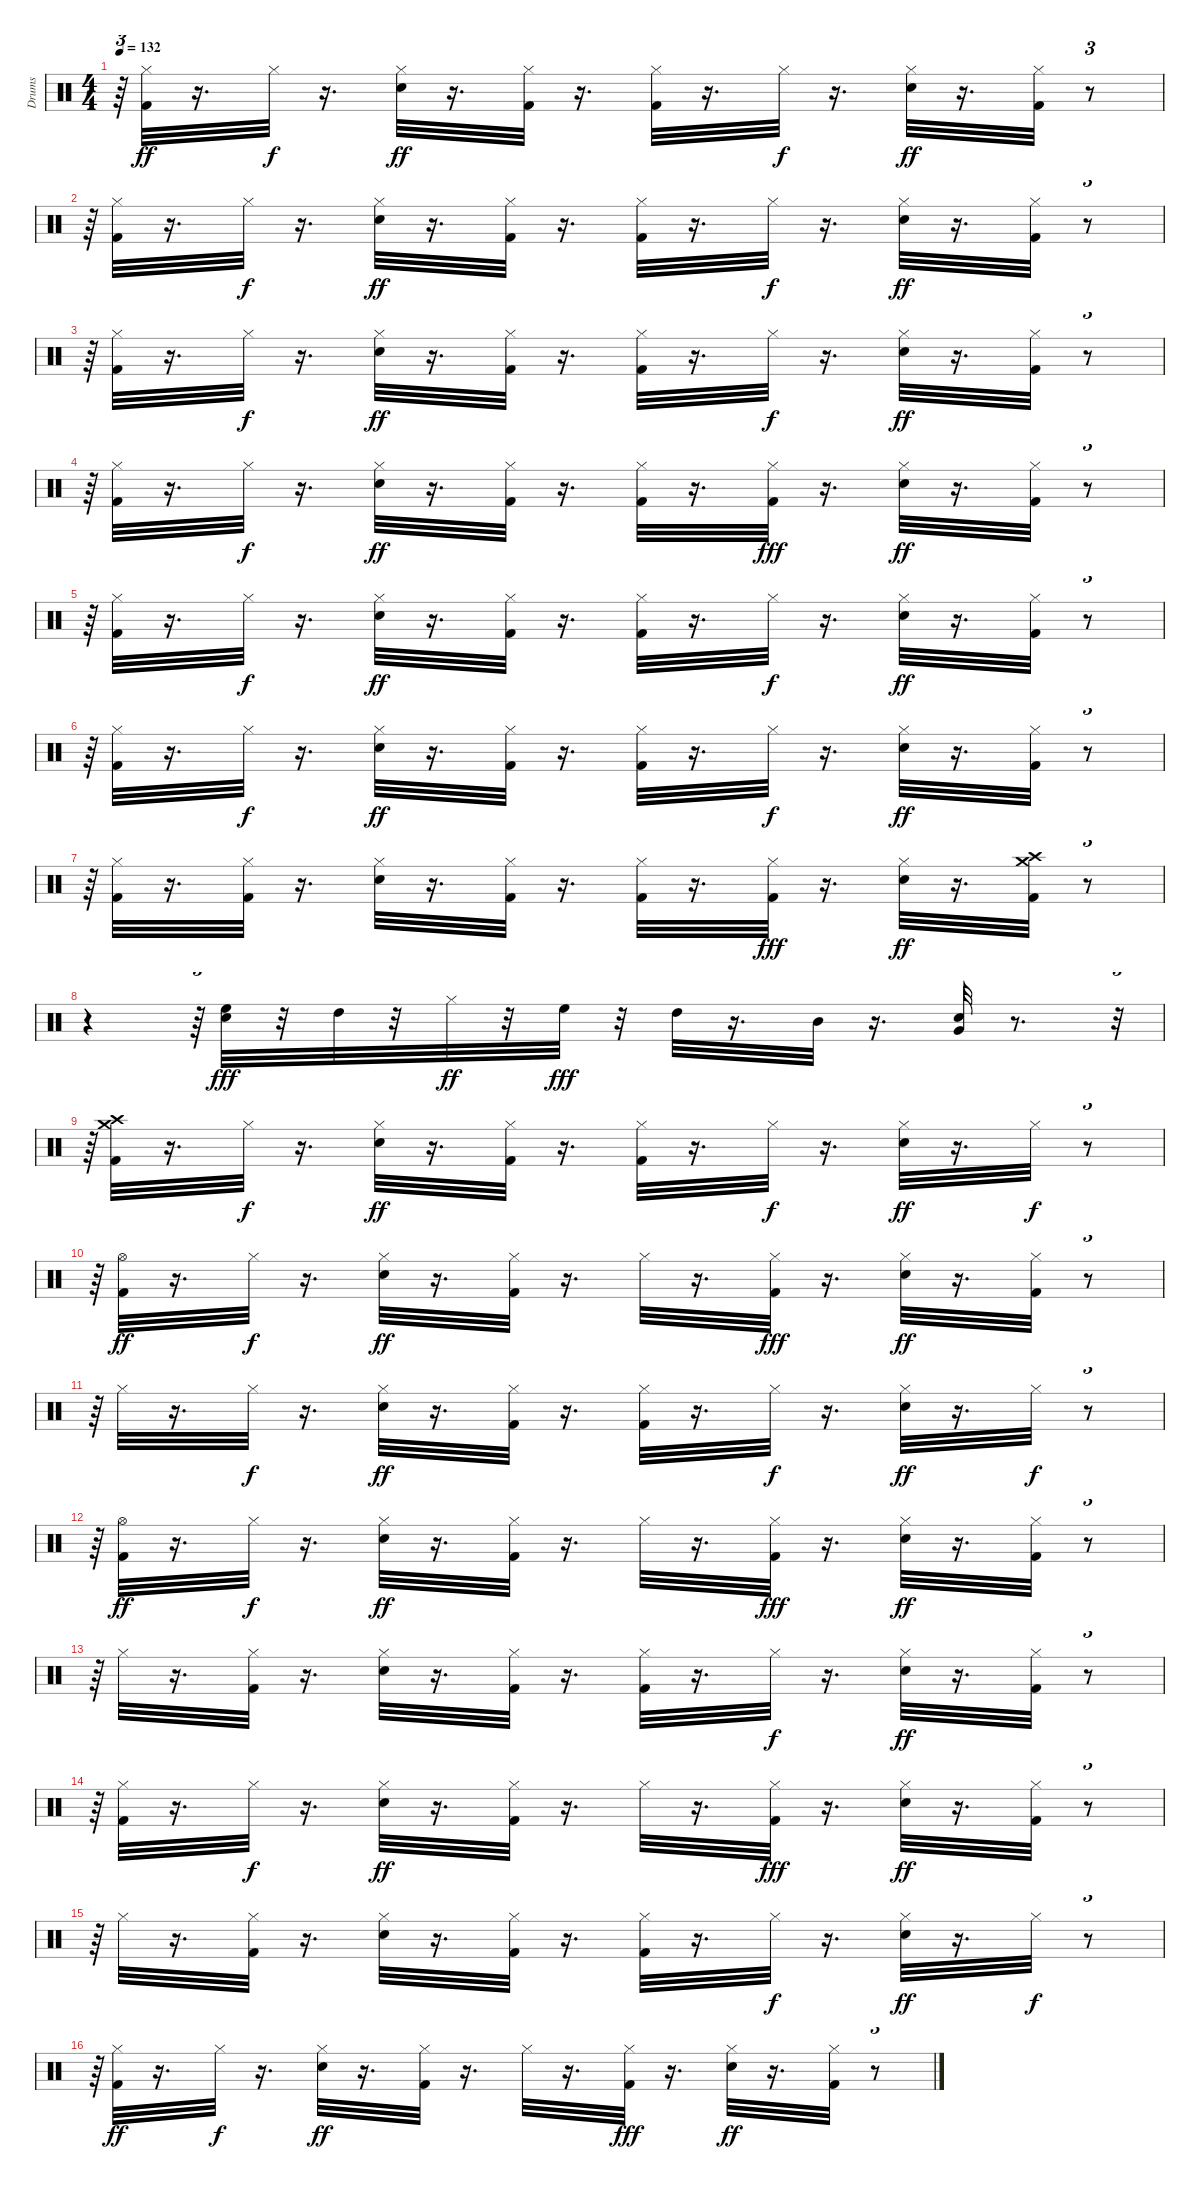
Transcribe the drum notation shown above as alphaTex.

\track ("Drums" "Drums") {instrument percussion}
\staff {score}
\articulation defaults
\ts (4 4)
\tempo 132
\clef neutral
\ks c
r.64{tu (3 2) dy ff} ("Kick (hit) 2" "Hi-Hat (closed)").32 r.16{d} "Hi-Hat (closed)".32{dy f} r.16{d} ("Snare (hit) 2" "Hi-Hat (closed)").32{dy ff} r.16{d} ("Kick (hit) 2" "Hi-Hat (closed)").32 r.16{d} ("Kick (hit) 2" "Hi-Hat (closed)").32 r.16{d} "Hi-Hat (closed)".32{dy f} r.16{d} ("Snare (hit) 2" "Hi-Hat (closed)").32{dy ff} r.16{d} ("Kick (hit) 2" "Hi-Hat (closed)").32 r.8{tu (3 2)} |
r.64{tu (3 2)} ("Kick (hit) 2" "Hi-Hat (closed)").32 r.16{d} "Hi-Hat (closed)".32{dy f} r.16{d} ("Snare (hit) 2" "Hi-Hat (closed)").32{dy ff} r.16{d} ("Kick (hit) 2" "Hi-Hat (closed)").32 r.16{d} ("Kick (hit) 2" "Hi-Hat (closed)").32 r.16{d} "Hi-Hat (closed)".32{dy f} r.16{d} ("Snare (hit) 2" "Hi-Hat (closed)").32{dy ff} r.16{d} ("Kick (hit) 2" "Hi-Hat (closed)").32 r.8{tu (3 2)} |
r.64{tu (3 2)} ("Kick (hit) 2" "Hi-Hat (closed)").32 r.16{d} "Hi-Hat (closed)".32{dy f} r.16{d} ("Snare (hit) 2" "Hi-Hat (closed)").32{dy ff} r.16{d} ("Kick (hit) 2" "Hi-Hat (closed)").32 r.16{d} ("Kick (hit) 2" "Hi-Hat (closed)").32 r.16{d} "Hi-Hat (closed)".32{dy f} r.16{d} ("Snare (hit) 2" "Hi-Hat (closed)").32{dy ff} r.16{d} ("Kick (hit) 2" "Hi-Hat (closed)").32 r.8{tu (3 2)} |
r.64{tu (3 2)} ("Kick (hit) 2" "Hi-Hat (closed)").32 r.16{d} "Hi-Hat (closed)".32{dy f} r.16{d} ("Snare (hit) 2" "Hi-Hat (closed)").32{dy ff} r.16{d} ("Kick (hit) 2" "Hi-Hat (closed)").32 r.16{d} ("Kick (hit) 2" "Hi-Hat (closed)").32 r.16{d} ("Kick (hit) 2" "Hi-Hat (closed)").32{dy fff} r.16{d} ("Snare (hit) 2" "Hi-Hat (closed)").32{dy ff} r.16{d} ("Kick (hit) 2" "Hi-Hat (closed)").32 r.8{tu (3 2)} |
r.64{tu (3 2)} ("Kick (hit) 2" "Hi-Hat (closed)").32 r.16{d} "Hi-Hat (closed)".32{dy f} r.16{d} ("Snare (hit) 2" "Hi-Hat (closed)").32{dy ff} r.16{d} ("Kick (hit) 2" "Hi-Hat (closed)").32 r.16{d} ("Kick (hit) 2" "Hi-Hat (closed)").32 r.16{d} "Hi-Hat (closed)".32{dy f} r.16{d} ("Snare (hit) 2" "Hi-Hat (closed)").32{dy ff} r.16{d} ("Kick (hit) 2" "Hi-Hat (closed)").32 r.8{tu (3 2)} |
r.64{tu (3 2)} ("Kick (hit) 2" "Hi-Hat (closed)").32 r.16{d} "Hi-Hat (closed)".32{dy f} r.16{d} ("Snare (hit) 2" "Hi-Hat (closed)").32{dy ff} r.16{d} ("Kick (hit) 2" "Hi-Hat (closed)").32 r.16{d} ("Kick (hit) 2" "Hi-Hat (closed)").32 r.16{d} "Hi-Hat (closed)".32{dy f} r.16{d} ("Snare (hit) 2" "Hi-Hat (closed)").32{dy ff} r.16{d} ("Kick (hit) 2" "Hi-Hat (closed)").32 r.8{tu (3 2)} |
r.64{tu (3 2)} ("Kick (hit) 2" "Hi-Hat (closed)").32 r.16{d} ("Kick (hit) 2" "Hi-Hat (closed)").32 r.16{d} ("Snare (hit) 2" "Hi-Hat (closed)").32 r.16{d} ("Kick (hit) 2" "Hi-Hat (closed)").32 r.16{d} ("Kick (hit) 2" "Hi-Hat (closed)").32 r.16{d} ("Kick (hit) 2" "Hi-Hat (closed)").32{dy fff} r.16{d} ("Snare (hit) 2" "Hi-Hat (closed)").32{dy ff} r.16{d} ("Kick (hit) 2" "Crash high (hit)" "Crash medium (hit)").32 r.8{tu (3 2)} |
r.4 r.64{tu (3 2)} ("Snare (hit) 2" "High Floor Tom (hit)").32{dy fff} r.32 "High Tom (hit)".32 r.32 "Hi-Hat (closed)".32{dy ff} r.32 "High Floor Tom (hit)".32{dy fff} r.32 "High Tom (hit)".32 r.16{d} "Mid Tom (hit)".32 r.16{d} ("Snare (hit) 2" "Very Low Tom (hit)").32 r.8{d} r.32{tu (3 2)} |
r.64{tu (3 2)} ("Kick (hit) 2" "Crash high (hit)" "Crash medium (hit)").32 r.16{d} "Hi-Hat (closed)".32{dy f} r.16{d} ("Snare (hit) 2" "Hi-Hat (closed)").32{dy ff} r.16{d} ("Kick (hit) 2" "Hi-Hat (closed)").32 r.16{d} ("Kick (hit) 2" "Hi-Hat (closed)").32 r.16{d} "Hi-Hat (closed)".32{dy f} r.16{d} ("Snare (hit) 2" "Hi-Hat (closed)").32{dy ff} r.16{d} "Hi-Hat (closed)".32{dy f} r.8{tu (3 2)} |
r.64{tu (3 2)} ("Kick (hit) 2" "Hi-Hat (open)").32{dy ff} r.16{d} "Hi-Hat (closed)".32{dy f} r.16{d} ("Snare (hit) 2" "Hi-Hat (closed)").32{dy ff} r.16{d} ("Kick (hit) 2" "Hi-Hat (closed)").32 r.16{d} "Hi-Hat (closed)".32 r.16{d} ("Kick (hit) 2" "Hi-Hat (closed)").32{dy fff} r.16{d} ("Snare (hit) 2" "Hi-Hat (closed)").32{dy ff} r.16{d} ("Kick (hit) 2" "Hi-Hat (closed)").32 r.8{tu (3 2)} |
r.64{tu (3 2)} "Hi-Hat (closed)".32 r.16{d} "Hi-Hat (closed)".32{dy f} r.16{d} ("Snare (hit) 2" "Hi-Hat (closed)").32{dy ff} r.16{d} ("Kick (hit) 2" "Hi-Hat (closed)").32 r.16{d} ("Kick (hit) 2" "Hi-Hat (closed)").32 r.16{d} "Hi-Hat (closed)".32{dy f} r.16{d} ("Snare (hit) 2" "Hi-Hat (closed)").32{dy ff} r.16{d} "Hi-Hat (closed)".32{dy f} r.8{tu (3 2)} |
r.64{tu (3 2)} ("Kick (hit) 2" "Hi-Hat (open)").32{dy ff} r.16{d} "Hi-Hat (closed)".32{dy f} r.16{d} ("Snare (hit) 2" "Hi-Hat (closed)").32{dy ff} r.16{d} ("Kick (hit) 2" "Hi-Hat (closed)").32 r.16{d} "Hi-Hat (closed)".32 r.16{d} ("Kick (hit) 2" "Hi-Hat (closed)").32{dy fff} r.16{d} ("Snare (hit) 2" "Hi-Hat (closed)").32{dy ff} r.16{d} ("Kick (hit) 2" "Hi-Hat (closed)").32 r.8{tu (3 2)} |
r.64{tu (3 2)} "Hi-Hat (closed)".32 r.16{d} ("Kick (hit) 2" "Hi-Hat (closed)").32 r.16{d} ("Snare (hit) 2" "Hi-Hat (closed)").32 r.16{d} ("Kick (hit) 2" "Hi-Hat (closed)").32 r.16{d} ("Kick (hit) 2" "Hi-Hat (closed)").32 r.16{d} "Hi-Hat (closed)".32{dy f} r.16{d} ("Snare (hit) 2" "Hi-Hat (closed)").32{dy ff} r.16{d} ("Kick (hit) 2" "Hi-Hat (closed)").32 r.8{tu (3 2)} |
r.64{tu (3 2)} ("Kick (hit) 2" "Hi-Hat (closed)").32 r.16{d} "Hi-Hat (closed)".32{dy f} r.16{d} ("Snare (hit) 2" "Hi-Hat (closed)").32{dy ff} r.16{d} ("Kick (hit) 2" "Hi-Hat (closed)").32 r.16{d} "Hi-Hat (closed)".32 r.16{d} ("Kick (hit) 2" "Hi-Hat (closed)").32{dy fff} r.16{d} ("Snare (hit) 2" "Hi-Hat (closed)").32{dy ff} r.16{d} ("Kick (hit) 2" "Hi-Hat (closed)").32 r.8{tu (3 2)} |
r.64{tu (3 2)} "Hi-Hat (closed)".32 r.16{d} ("Kick (hit) 2" "Hi-Hat (closed)").32 r.16{d} ("Snare (hit) 2" "Hi-Hat (closed)").32 r.16{d} ("Kick (hit) 2" "Hi-Hat (closed)").32 r.16{d} ("Kick (hit) 2" "Hi-Hat (closed)").32 r.16{d} "Hi-Hat (closed)".32{dy f} r.16{d} ("Snare (hit) 2" "Hi-Hat (closed)").32{dy ff} r.16{d} "Hi-Hat (closed)".32{dy f} r.8{tu (3 2)} |
r.64{tu (3 2)} ("Kick (hit) 2" "Hi-Hat (closed)").32{dy ff} r.16{d} "Hi-Hat (closed)".32{dy f} r.16{d} ("Snare (hit) 2" "Hi-Hat (closed)").32{dy ff} r.16{d} ("Kick (hit) 2" "Hi-Hat (closed)").32 r.16{d} "Hi-Hat (closed)".32 r.16{d} ("Kick (hit) 2" "Hi-Hat (closed)").32{dy fff} r.16{d} ("Snare (hit) 2" "Hi-Hat (closed)").32{dy ff} r.16{d} ("Kick (hit) 2" "Hi-Hat (closed)").32 r.8{tu (3 2)}
